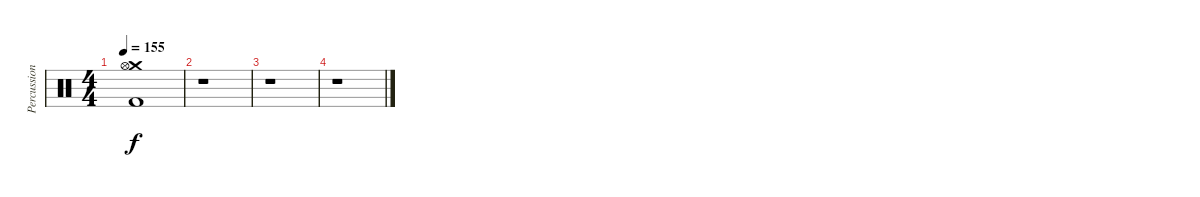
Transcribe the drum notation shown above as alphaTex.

\track ("Percussion" "Percussion") {instrument percussion}
\staff {score}
\articulation defaults
\ts (4 4)
\tempo 155
\clef neutral
\ks c
("Crash medium (hit)" "Hi-Hat (open)" "Kick (hit) 2").1{dy f} |
r.1 |
r.1 |
r.1
